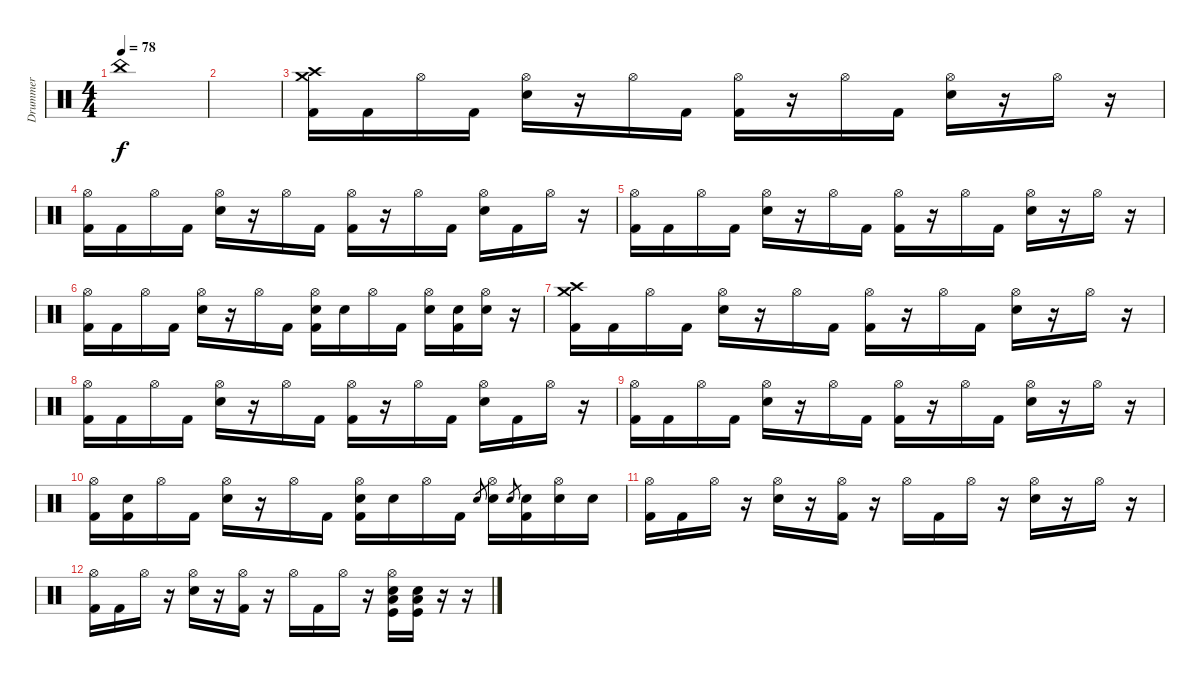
\track ("Drummer" "Drummer") {instrument percussion}
\staff {score}
\articulation defaults
\ts (4 4)
\tempo 78
\clef neutral
\ks c "China (hit)"{t}.1{dy f}
|
|
("Crash high (hit)" "Crash medium (hit)" "Kick (hit) 2").16 "Kick (hit) 2".16 "Hi-Hat (open)".16 "Kick (hit) 2".16 ("Hi-Hat (open)" "Snare (hit) 2").16 r.16 "Hi-Hat (open)".16 "Kick (hit) 2".16 ("Hi-Hat (open)" "Kick (hit) 2").16 r.16 "Hi-Hat (open)".16 "Kick (hit) 2".16 ("Hi-Hat (open)" "Snare (hit) 2").16 r.16 "Hi-Hat (open)".16 r.16 |
("Hi-Hat (open)" "Kick (hit) 2").16 "Kick (hit) 2".16 "Hi-Hat (open)".16 "Kick (hit) 2".16 ("Hi-Hat (open)" "Snare (hit) 2").16 r.16 "Hi-Hat (open)".16 "Kick (hit) 2".16 ("Hi-Hat (open)" "Kick (hit) 2").16 r.16 "Hi-Hat (open)".16 "Kick (hit) 2".16 ("Hi-Hat (open)" "Snare (hit) 2").16 "Kick (hit) 2".16 "Hi-Hat (open)".16 r.16 |
("Hi-Hat (open)" "Kick (hit) 2").16 "Kick (hit) 2".16 "Hi-Hat (open)".16 "Kick (hit) 2".16 ("Hi-Hat (open)" "Snare (hit) 2").16 r.16 "Hi-Hat (open)".16 "Kick (hit) 2".16 ("Hi-Hat (open)" "Kick (hit) 2").16 r.16 "Hi-Hat (open)".16 "Kick (hit) 2".16 ("Hi-Hat (open)" "Snare (hit) 2").16 r.16 "Hi-Hat (open)".16 r.16 |
("Hi-Hat (open)" "Kick (hit) 2").16 "Kick (hit) 2".16 "Hi-Hat (open)".16 "Kick (hit) 2".16 ("Hi-Hat (open)" "Snare (hit) 2").16 r.16 "Hi-Hat (open)".16 "Kick (hit) 2".16 ("Hi-Hat (open)" "Snare (hit) 2" "Kick (hit) 2").16 "Snare (hit) 2".16 "Hi-Hat (open)".16 "Kick (hit) 2".16 ("Hi-Hat (open)" "Snare (hit) 2").16 ("Snare (hit) 2" "Kick (hit) 2").16 ("Hi-Hat (open)" "Snare (hit) 2").16 r.16 |
("Crash high (hit)" "Crash medium (hit)" "Kick (hit) 2").16 "Kick (hit) 2".16 "Hi-Hat (open)".16 "Kick (hit) 2".16 ("Hi-Hat (open)" "Snare (hit) 2").16 r.16 "Hi-Hat (open)".16 "Kick (hit) 2".16 ("Hi-Hat (open)" "Kick (hit) 2").16 r.16 "Hi-Hat (open)".16 "Kick (hit) 2".16 ("Hi-Hat (open)" "Snare (hit) 2").16 r.16 "Hi-Hat (open)".16 r.16 |
("Hi-Hat (open)" "Kick (hit) 2").16 "Kick (hit) 2".16 "Hi-Hat (open)".16 "Kick (hit) 2".16 ("Hi-Hat (open)" "Snare (hit) 2").16 r.16 "Hi-Hat (open)".16 "Kick (hit) 2".16 ("Hi-Hat (open)" "Kick (hit) 2").16 r.16 "Hi-Hat (open)".16 "Kick (hit) 2".16 ("Hi-Hat (open)" "Snare (hit) 2").16 "Kick (hit) 2".16 "Hi-Hat (open)".16 r.16 |
("Hi-Hat (open)" "Kick (hit) 2").16 "Kick (hit) 2".16 "Hi-Hat (open)".16 "Kick (hit) 2".16 ("Hi-Hat (open)" "Snare (hit) 2").16 r.16 "Hi-Hat (open)".16 "Kick (hit) 2".16 ("Hi-Hat (open)" "Kick (hit) 2").16 r.16 "Hi-Hat (open)".16 "Kick (hit) 2".16 ("Hi-Hat (open)" "Snare (hit) 2").16 r.16 "Hi-Hat (open)".16 r.16 |
("Hi-Hat (open)" "Kick (hit) 2").16 ("Snare (hit) 2" "Kick (hit) 2").16 "Hi-Hat (open)".16 "Kick (hit) 2".16 ("Hi-Hat (open)" "Snare (hit) 2").16 r.16 "Hi-Hat (open)".16 "Kick (hit) 2".16 ("Hi-Hat (open)" "Snare (hit) 2" "Kick (hit) 2").16 "Snare (hit) 2".16 "Hi-Hat (open)".16 "Kick (hit) 2".16 "Snare (hit) 2".8{gr} ("Hi-Hat (open)" "Snare (hit) 2").16 "Snare (hit) 2".8{gr} ("Snare (hit) 2" "Kick (hit) 2").16 ("Hi-Hat (open)" "Snare (hit) 2").16 "Snare (hit) 2".16 |
("Hi-Hat (open)" "Kick (hit) 2").16 "Kick (hit) 2".16 "Hi-Hat (open)".16 r.16 ("Hi-Hat (open)" "Snare (hit) 2").16 r.16 ("Hi-Hat (open)" "Kick (hit) 2").16 r.16 "Hi-Hat (open)".16 "Kick (hit) 2".16 "Hi-Hat (open)".16 r.16 ("Hi-Hat (open)" "Snare (hit) 2").16 r.16 "Hi-Hat (open)".16 r.16 |
("Hi-Hat (open)" "Kick (hit) 2").16 "Kick (hit) 2".16 "Hi-Hat (open)".16 r.16 ("Hi-Hat (open)" "Snare (hit) 2").16 r.16 ("Hi-Hat (open)" "Kick (hit) 2").16 r.16 "Hi-Hat (open)".16 "Kick (hit) 2".16 "Hi-Hat (open)".16 r.16 ("Hi-Hat (open)" "Low Floor Tom (hit)" "Snare (hit) 2" "Kick (hit)").16 ("Low Floor Tom (hit)" "Snare (hit) 2" "Kick (hit)").16 r.16 r.16
